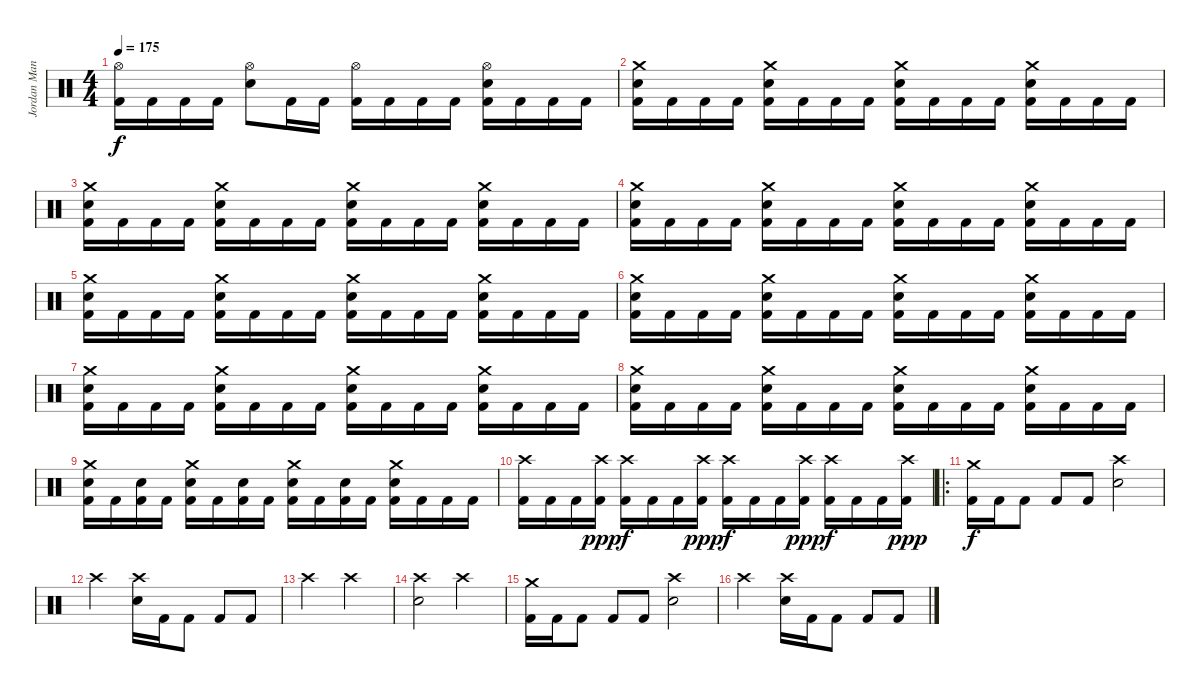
\track ("Jordan Mancini" "Jordan Man") {instrument percussion}
\staff {score}
\articulation defaults
\ts (4 4)
\tempo 175
\clef neutral
\ks c
("Hi-Hat (open)" "Kick (hit) 2").16{dy f} "Kick (hit) 2".16 "Kick (hit) 2".16 "Kick (hit) 2".16 ("Hi-Hat (open)" "Snare (hit) 2").8 "Kick (hit) 2".16 "Kick (hit) 2".16 ("Hi-Hat (open)" "Kick (hit) 2").16 "Kick (hit) 2".16 "Kick (hit) 2".16 "Kick (hit) 2".16 ("Hi-Hat (open)" "Snare (hit) 2" "Kick (hit) 2").16 "Kick (hit) 2".16 "Kick (hit) 2".16 "Kick (hit) 2".16 |
("Crash medium (hit)" "Snare (hit) 2" "Kick (hit) 2").16 "Kick (hit) 2".16 "Kick (hit) 2".16 "Kick (hit) 2".16 ("Crash medium (hit)" "Snare (hit) 2" "Kick (hit) 2").16 "Kick (hit) 2".16 "Kick (hit) 2".16 "Kick (hit) 2".16 ("Crash medium (hit)" "Snare (hit) 2" "Kick (hit) 2").16 "Kick (hit) 2".16 "Kick (hit) 2".16 "Kick (hit) 2".16 ("Crash medium (hit)" "Snare (hit) 2" "Kick (hit) 2").16 "Kick (hit) 2".16 "Kick (hit) 2".16 "Kick (hit) 2".16 |
("Crash medium (hit)" "Snare (hit) 2" "Kick (hit) 2").16 "Kick (hit) 2".16 "Kick (hit) 2".16 "Kick (hit) 2".16 ("Crash medium (hit)" "Snare (hit) 2" "Kick (hit) 2").16 "Kick (hit) 2".16 "Kick (hit) 2".16 "Kick (hit) 2".16 ("Crash medium (hit)" "Snare (hit) 2" "Kick (hit) 2").16 "Kick (hit) 2".16 "Kick (hit) 2".16 "Kick (hit) 2".16 ("Crash medium (hit)" "Snare (hit) 2" "Kick (hit) 2").16 "Kick (hit) 2".16 "Kick (hit) 2".16 "Kick (hit) 2".16 |
("Crash medium (hit)" "Snare (hit) 2" "Kick (hit) 2").16 "Kick (hit) 2".16 "Kick (hit) 2".16 "Kick (hit) 2".16 ("Crash medium (hit)" "Snare (hit) 2" "Kick (hit) 2").16 "Kick (hit) 2".16 "Kick (hit) 2".16 "Kick (hit) 2".16 ("Crash medium (hit)" "Snare (hit) 2" "Kick (hit) 2").16 "Kick (hit) 2".16 "Kick (hit) 2".16 "Kick (hit) 2".16 ("Crash medium (hit)" "Snare (hit) 2" "Kick (hit) 2").16 "Kick (hit) 2".16 "Kick (hit) 2".16 "Kick (hit) 2".16 |
("Crash medium (hit)" "Snare (hit) 2" "Kick (hit) 2").16 "Kick (hit) 2".16 "Kick (hit) 2".16 "Kick (hit) 2".16 ("Crash medium (hit)" "Snare (hit) 2" "Kick (hit) 2").16 "Kick (hit) 2".16 "Kick (hit) 2".16 "Kick (hit) 2".16 ("Crash medium (hit)" "Snare (hit) 2" "Kick (hit) 2").16 "Kick (hit) 2".16 "Kick (hit) 2".16 "Kick (hit) 2".16 ("Crash medium (hit)" "Snare (hit) 2" "Kick (hit) 2").16 "Kick (hit) 2".16 "Kick (hit) 2".16 "Kick (hit) 2".16 |
("Crash medium (hit)" "Snare (hit) 2" "Kick (hit) 2").16 "Kick (hit) 2".16 "Kick (hit) 2".16 "Kick (hit) 2".16 ("Crash medium (hit)" "Snare (hit) 2" "Kick (hit) 2").16 "Kick (hit) 2".16 "Kick (hit) 2".16 "Kick (hit) 2".16 ("Crash medium (hit)" "Snare (hit) 2" "Kick (hit) 2").16 "Kick (hit) 2".16 "Kick (hit) 2".16 "Kick (hit) 2".16 ("Crash medium (hit)" "Snare (hit) 2" "Kick (hit) 2").16 "Kick (hit) 2".16 "Kick (hit) 2".16 "Kick (hit) 2".16 |
("Crash medium (hit)" "Snare (hit) 2" "Kick (hit) 2").16 "Kick (hit) 2".16 "Kick (hit) 2".16 "Kick (hit) 2".16 ("Crash medium (hit)" "Snare (hit) 2" "Kick (hit) 2").16 "Kick (hit) 2".16 "Kick (hit) 2".16 "Kick (hit) 2".16 ("Crash medium (hit)" "Snare (hit) 2" "Kick (hit) 2").16 "Kick (hit) 2".16 "Kick (hit) 2".16 "Kick (hit) 2".16 ("Crash medium (hit)" "Snare (hit) 2" "Kick (hit) 2").16 "Kick (hit) 2".16 "Kick (hit) 2".16 "Kick (hit) 2".16 |
("Crash medium (hit)" "Snare (hit) 2" "Kick (hit) 2").16 "Kick (hit) 2".16 "Kick (hit) 2".16 "Kick (hit) 2".16 ("Crash medium (hit)" "Snare (hit) 2" "Kick (hit) 2").16 "Kick (hit) 2".16 "Kick (hit) 2".16 "Kick (hit) 2".16 ("Crash medium (hit)" "Snare (hit) 2" "Kick (hit) 2").16 "Kick (hit) 2".16 "Kick (hit) 2".16 "Kick (hit) 2".16 ("Crash medium (hit)" "Snare (hit) 2" "Kick (hit) 2").16 "Kick (hit) 2".16 "Kick (hit) 2".16 "Kick (hit) 2".16 |
("Crash medium (hit)" "Snare (hit) 2" "Kick (hit) 2").16 "Kick (hit) 2".16 ("Snare (hit) 2" "Kick (hit) 2").16 "Kick (hit) 2".16 ("Crash medium (hit)" "Snare (hit) 2" "Kick (hit) 2").16 "Kick (hit) 2".16 ("Snare (hit) 2" "Kick (hit) 2").16 "Kick (hit) 2".16 ("Crash medium (hit)" "Snare (hit) 2" "Kick (hit) 2").16 "Kick (hit) 2".16 ("Snare (hit) 2" "Kick (hit) 2").16 "Kick (hit) 2".16 ("Crash medium (hit)" "Snare (hit) 2" "Kick (hit) 2").16 "Kick (hit) 2".16 "Kick (hit) 2".16 "Kick (hit) 2".16 |
("Crash high (hit)" "Kick (hit) 2").16 "Kick (hit) 2".16 "Kick (hit) 2".16 ("Crash high (hit)" "Kick (hit) 2").16{dy ppp} ("Crash high (hit)" "Kick (hit) 2").16{dy f} "Kick (hit) 2".16 "Kick (hit) 2".16 ("Crash high (hit)" "Kick (hit) 2").16{dy ppp} ("Crash high (hit)" "Kick (hit) 2").16{dy f} "Kick (hit) 2".16 "Kick (hit) 2".16 ("Crash high (hit)" "Kick (hit) 2").16{dy ppp} ("Crash high (hit)" "Kick (hit) 2").16{dy f} "Kick (hit) 2".16 "Kick (hit) 2".16 ("Crash high (hit)" "Kick (hit) 2").16{dy ppp} |
\ro
("Crash medium (hit)" "Kick (hit) 2").16{dy f} "Kick (hit) 2".16 "Kick (hit) 2".8 "Kick (hit) 2".8 "Kick (hit) 2".8 ("Crash high (hit)" "Snare (hit) 2").2 |
"Crash high (hit)".2 ("Crash high (hit)" "Snare (hit) 2").16 "Kick (hit) 2".16 "Kick (hit) 2".8 "Kick (hit) 2".8 "Kick (hit) 2".8 |
"Crash high (hit)".2 "Crash high (hit)".2 |
("Crash high (hit)" "Snare (hit) 2").2 "Crash high (hit)".2 |
("Crash medium (hit)" "Kick (hit) 2").16 "Kick (hit) 2".16 "Kick (hit) 2".8 "Kick (hit) 2".8 "Kick (hit) 2".8 ("Crash high (hit)" "Snare (hit) 2").2 |
"Crash high (hit)".2 ("Crash high (hit)" "Snare (hit) 2").16 "Kick (hit) 2".16 "Kick (hit) 2".8 "Kick (hit) 2".8 "Kick (hit) 2".8
